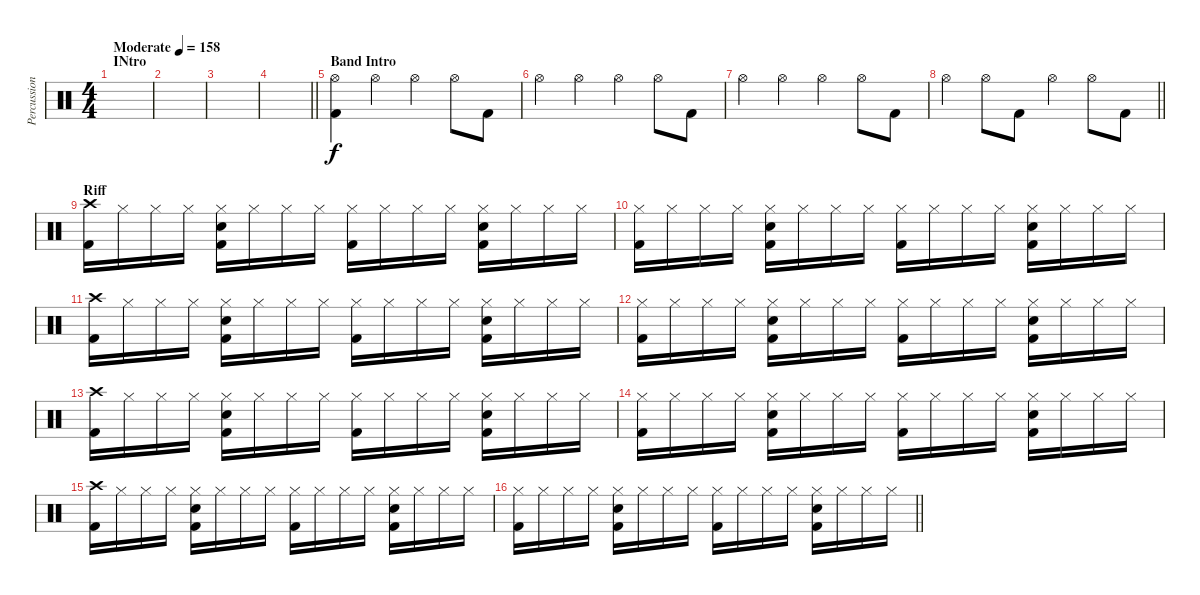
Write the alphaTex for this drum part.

\track ("Percussion" "Percussion") {instrument percussion}
\staff {score}
\articulation defaults
\ts (4 4)
\section ("" "INtro")
\tempo (158 "Moderate")
\clef neutral
\ks c
|
|
|
\barLineRight lightlight
|
\section ("" "Band Intro")
("Hi-Hat (open)" "Kick (hit) 2").4 "Hi-Hat (open)".4 "Hi-Hat (open)".4 "Hi-Hat (open)".8 "Kick (hit) 2".8 |
"Hi-Hat (open)".4 "Hi-Hat (open)".4 "Hi-Hat (open)".4 "Hi-Hat (open)".8 "Kick (hit) 2".8 |
"Hi-Hat (open)".4 "Hi-Hat (open)".4 "Hi-Hat (open)".4 "Hi-Hat (open)".8 "Kick (hit) 2".8 |
\barLineRight lightlight "Hi-Hat (open)".4 "Hi-Hat (open)".8 "Kick (hit) 2".8 "Hi-Hat (open)".4 "Hi-Hat (open)".8 "Kick (hit) 2".8
|
\section ("" "Riff")
("Crash high (hit)" "Kick (hit) 2").16 "Hi-Hat (closed)".16 "Hi-Hat (closed)".16 "Hi-Hat (closed)".16 ("Hi-Hat (closed)" "Electric Snare (hit)" "Kick (hit) 2").16 "Hi-Hat (closed)".16 "Hi-Hat (closed)".16 "Hi-Hat (closed)".16 ("Hi-Hat (closed)" "Kick (hit) 2").16 "Hi-Hat (closed)".16 "Hi-Hat (closed)".16 "Hi-Hat (closed)".16 ("Hi-Hat (closed)" "Electric Snare (hit)" "Kick (hit) 2").16 "Hi-Hat (closed)".16 "Hi-Hat (closed)".16 "Hi-Hat (closed)".16 |
("Hi-Hat (closed)" "Kick (hit) 2").16 "Hi-Hat (closed)".16 "Hi-Hat (closed)".16 "Hi-Hat (closed)".16 ("Hi-Hat (closed)" "Electric Snare (hit)" "Kick (hit) 2").16 "Hi-Hat (closed)".16 "Hi-Hat (closed)".16 "Hi-Hat (closed)".16 ("Hi-Hat (closed)" "Kick (hit) 2").16 "Hi-Hat (closed)".16 "Hi-Hat (closed)".16 "Hi-Hat (closed)".16 ("Hi-Hat (closed)" "Electric Snare (hit)" "Kick (hit) 2").16 "Hi-Hat (closed)".16 "Hi-Hat (closed)".16 "Hi-Hat (closed)".16 |
("Crash high (hit)" "Kick (hit) 2").16 "Hi-Hat (closed)".16 "Hi-Hat (closed)".16 "Hi-Hat (closed)".16 ("Hi-Hat (closed)" "Electric Snare (hit)" "Kick (hit) 2").16 "Hi-Hat (closed)".16 "Hi-Hat (closed)".16 "Hi-Hat (closed)".16 ("Hi-Hat (closed)" "Kick (hit) 2").16 "Hi-Hat (closed)".16 "Hi-Hat (closed)".16 "Hi-Hat (closed)".16 ("Hi-Hat (closed)" "Electric Snare (hit)" "Kick (hit) 2").16 "Hi-Hat (closed)".16 "Hi-Hat (closed)".16 "Hi-Hat (closed)".16 |
("Hi-Hat (closed)" "Kick (hit) 2").16 "Hi-Hat (closed)".16 "Hi-Hat (closed)".16 "Hi-Hat (closed)".16 ("Hi-Hat (closed)" "Electric Snare (hit)" "Kick (hit) 2").16 "Hi-Hat (closed)".16 "Hi-Hat (closed)".16 "Hi-Hat (closed)".16 ("Hi-Hat (closed)" "Kick (hit) 2").16 "Hi-Hat (closed)".16 "Hi-Hat (closed)".16 "Hi-Hat (closed)".16 ("Hi-Hat (closed)" "Electric Snare (hit)" "Kick (hit) 2").16 "Hi-Hat (closed)".16 "Hi-Hat (closed)".16 "Hi-Hat (closed)".16 |
("Crash high (hit)" "Kick (hit) 2").16 "Hi-Hat (closed)".16 "Hi-Hat (closed)".16 "Hi-Hat (closed)".16 ("Hi-Hat (closed)" "Electric Snare (hit)" "Kick (hit) 2").16 "Hi-Hat (closed)".16 "Hi-Hat (closed)".16 "Hi-Hat (closed)".16 ("Hi-Hat (closed)" "Kick (hit) 2").16 "Hi-Hat (closed)".16 "Hi-Hat (closed)".16 "Hi-Hat (closed)".16 ("Hi-Hat (closed)" "Electric Snare (hit)" "Kick (hit) 2").16 "Hi-Hat (closed)".16 "Hi-Hat (closed)".16 "Hi-Hat (closed)".16 |
("Hi-Hat (closed)" "Kick (hit) 2").16 "Hi-Hat (closed)".16 "Hi-Hat (closed)".16 "Hi-Hat (closed)".16 ("Hi-Hat (closed)" "Electric Snare (hit)" "Kick (hit) 2").16 "Hi-Hat (closed)".16 "Hi-Hat (closed)".16 "Hi-Hat (closed)".16 ("Hi-Hat (closed)" "Kick (hit) 2").16 "Hi-Hat (closed)".16 "Hi-Hat (closed)".16 "Hi-Hat (closed)".16 ("Hi-Hat (closed)" "Electric Snare (hit)" "Kick (hit) 2").16 "Hi-Hat (closed)".16 "Hi-Hat (closed)".16 "Hi-Hat (closed)".16 |
("Crash high (hit)" "Kick (hit) 2").16 "Hi-Hat (closed)".16 "Hi-Hat (closed)".16 "Hi-Hat (closed)".16 ("Hi-Hat (closed)" "Electric Snare (hit)" "Kick (hit) 2").16 "Hi-Hat (closed)".16 "Hi-Hat (closed)".16 "Hi-Hat (closed)".16 ("Hi-Hat (closed)" "Kick (hit) 2").16 "Hi-Hat (closed)".16 "Hi-Hat (closed)".16 "Hi-Hat (closed)".16 ("Hi-Hat (closed)" "Electric Snare (hit)" "Kick (hit) 2").16 "Hi-Hat (closed)".16 "Hi-Hat (closed)".16 "Hi-Hat (closed)".16 |
\barLineRight lightlight
("Hi-Hat (closed)" "Kick (hit) 2").16 "Hi-Hat (closed)".16 "Hi-Hat (closed)".16 "Hi-Hat (closed)".16 ("Hi-Hat (closed)" "Electric Snare (hit)" "Kick (hit) 2").16 "Hi-Hat (closed)".16 "Hi-Hat (closed)".16 "Hi-Hat (closed)".16 ("Hi-Hat (closed)" "Kick (hit) 2").16 "Hi-Hat (closed)".16 "Hi-Hat (closed)".16 "Hi-Hat (closed)".16 ("Hi-Hat (closed)" "Electric Snare (hit)" "Kick (hit) 2").16 "Hi-Hat (closed)".16 "Hi-Hat (closed)".16 "Hi-Hat (closed)".16
